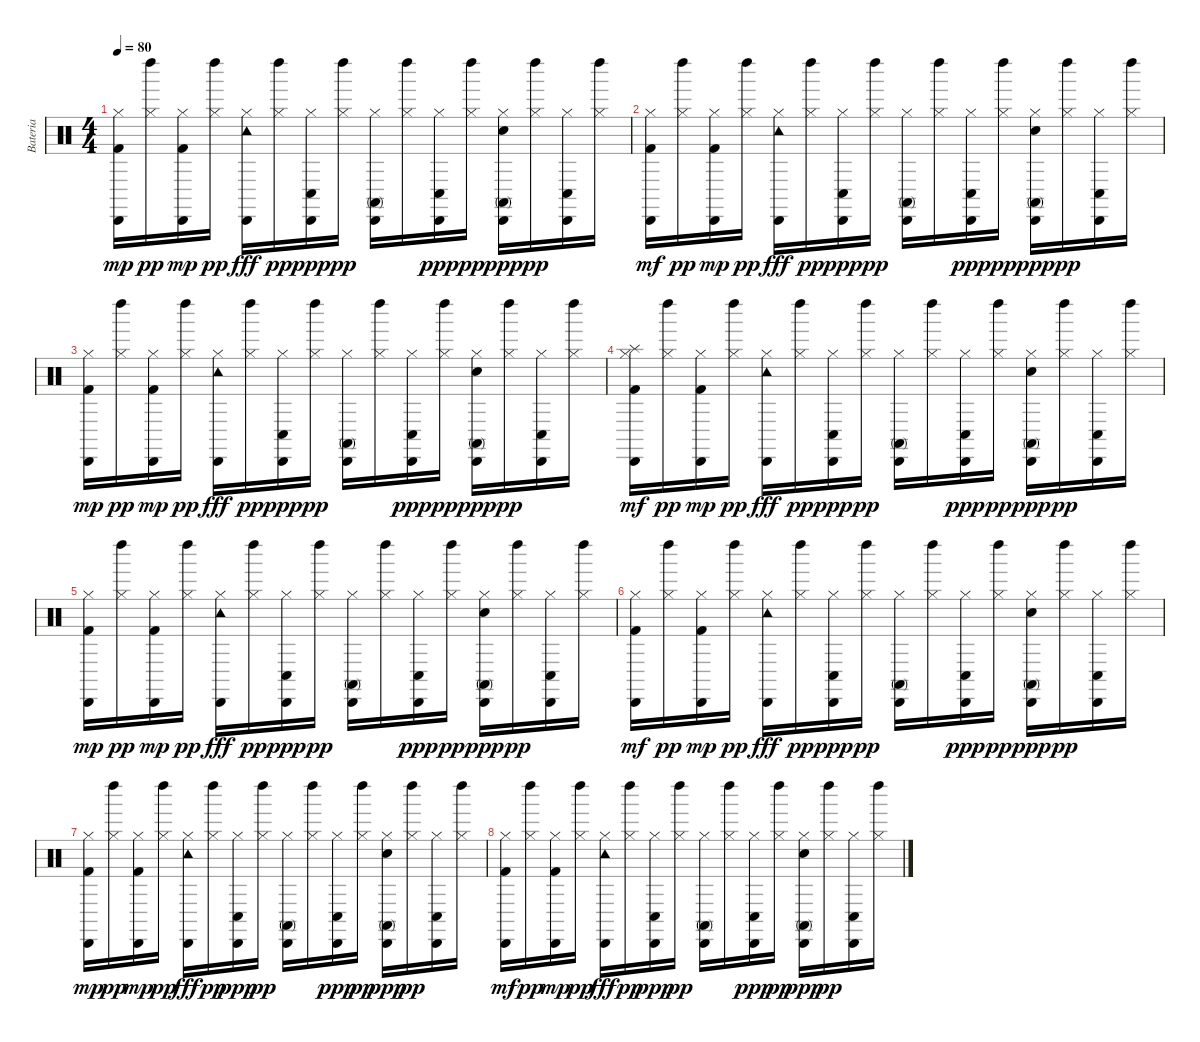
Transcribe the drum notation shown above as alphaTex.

\track ("Bateria" "Bateria") {instrument percussion}
\staff {score}
\articulation defaults
\ts (4 4)
\tempo 80
\clef neutral
\ks c
("Hi-Hat (closed)" "Cabasa (hit)" "Kick (hit) 2").16{dy mp} ("Hi-Hat (closed)" "Left Maraca (hit)").16{dy pp} ("Hi-Hat (closed)" "Cabasa (hit)" "Kick (hit) 2").16{dy mp} ("Hi-Hat (closed)" "Left Maraca (hit)").16{dy pp} ("Hi-Hat (closed)" "Cabasa (hit)" "Tambourine (hit)").16{dy fff} ("Hi-Hat (closed)" "Left Maraca (hit)").16{dy pp} ("Hi-Hat (closed)" "Conga low (hit)" "Cabasa (hit)").16{dy ppp} ("Hi-Hat (closed)" "Left Maraca (hit)").16{dy pp} ("Hi-Hat (closed)" "Conga high (mute)" "Cabasa (hit)").16 ("Hi-Hat (closed)" "Left Maraca (hit)").16 ("Hi-Hat (closed)" "Conga low (hit)" "Cabasa (hit)").16{dy ppp} ("Hi-Hat (closed)" "Left Maraca (hit)").16{dy pp} ("Electric Snare (hit)" "Hi-Hat (closed)" "Conga high (mute)" "Cabasa (hit)").16{dy ppp} ("Hi-Hat (closed)" "Left Maraca (hit)").16{dy pp} ("Hi-Hat (closed)" "Conga low (hit)" "Cabasa (hit)").16 ("Hi-Hat (closed)" "Left Maraca (hit)").16 |
("Hi-Hat (closed)" "Cabasa (hit)" "Kick (hit) 2").16{dy mf} ("Hi-Hat (closed)" "Left Maraca (hit)").16{dy pp} ("Hi-Hat (closed)" "Cabasa (hit)" "Kick (hit) 2").16{dy mp} ("Hi-Hat (closed)" "Left Maraca (hit)").16{dy pp} ("Hi-Hat (closed)" "Cabasa (hit)" "Tambourine (hit)").16{dy fff} ("Hi-Hat (closed)" "Left Maraca (hit)").16{dy pp} ("Hi-Hat (closed)" "Conga low (hit)" "Cabasa (hit)").16{dy ppp} ("Hi-Hat (closed)" "Left Maraca (hit)").16{dy pp} ("Hi-Hat (closed)" "Conga high (mute)" "Cabasa (hit)").16 ("Hi-Hat (closed)" "Left Maraca (hit)").16 ("Hi-Hat (closed)" "Conga low (hit)" "Cabasa (hit)").16{dy ppp} ("Hi-Hat (closed)" "Left Maraca (hit)").16{dy pp} ("Electric Snare (hit)" "Hi-Hat (closed)" "Conga high (mute)" "Cabasa (hit)").16{dy ppp} ("Hi-Hat (closed)" "Left Maraca (hit)").16{dy pp} ("Hi-Hat (closed)" "Conga low (hit)" "Cabasa (hit)").16 ("Hi-Hat (closed)" "Left Maraca (hit)").16 |
("Hi-Hat (closed)" "Cabasa (hit)" "Kick (hit) 2").16{dy mp} ("Hi-Hat (closed)" "Left Maraca (hit)").16{dy pp} ("Hi-Hat (closed)" "Cabasa (hit)" "Kick (hit) 2").16{dy mp} ("Hi-Hat (closed)" "Left Maraca (hit)").16{dy pp} ("Hi-Hat (closed)" "Cabasa (hit)" "Tambourine (hit)").16{dy fff} ("Hi-Hat (closed)" "Left Maraca (hit)").16{dy pp} ("Hi-Hat (closed)" "Conga low (hit)" "Cabasa (hit)").16{dy ppp} ("Hi-Hat (closed)" "Left Maraca (hit)").16{dy pp} ("Hi-Hat (closed)" "Conga high (mute)" "Cabasa (hit)").16 ("Hi-Hat (closed)" "Left Maraca (hit)").16 ("Hi-Hat (closed)" "Conga low (hit)" "Cabasa (hit)").16{dy ppp} ("Hi-Hat (closed)" "Left Maraca (hit)").16{dy pp} ("Electric Snare (hit)" "Hi-Hat (closed)" "Conga high (mute)" "Cabasa (hit)").16{dy ppp} ("Hi-Hat (closed)" "Left Maraca (hit)").16{dy pp} ("Hi-Hat (closed)" "Conga low (hit)" "Cabasa (hit)").16 ("Hi-Hat (closed)" "Left Maraca (hit)").16 |
("Hi-Hat (closed)" "Splash (hit)" "Cabasa (hit)" "Kick (hit) 2").16{dy mf} ("Hi-Hat (closed)" "Left Maraca (hit)").16{dy pp} ("Hi-Hat (closed)" "Cabasa (hit)" "Kick (hit) 2").16{dy mp} ("Hi-Hat (closed)" "Left Maraca (hit)").16{dy pp} ("Hi-Hat (closed)" "Cabasa (hit)" "Tambourine (hit)").16{dy fff} ("Hi-Hat (closed)" "Left Maraca (hit)").16{dy pp} ("Hi-Hat (closed)" "Conga low (hit)" "Cabasa (hit)").16{dy ppp} ("Hi-Hat (closed)" "Left Maraca (hit)").16{dy pp} ("Hi-Hat (closed)" "Conga high (mute)" "Cabasa (hit)").16 ("Hi-Hat (closed)" "Left Maraca (hit)").16 ("Hi-Hat (closed)" "Conga low (hit)" "Cabasa (hit)").16{dy ppp} ("Hi-Hat (closed)" "Left Maraca (hit)").16{dy pp} ("Electric Snare (hit)" "Hi-Hat (closed)" "Conga high (mute)" "Cabasa (hit)").16{dy ppp} ("Hi-Hat (closed)" "Left Maraca (hit)").16{dy pp} ("Hi-Hat (closed)" "Conga low (hit)" "Cabasa (hit)").16 ("Hi-Hat (closed)" "Left Maraca (hit)").16 |
("Hi-Hat (closed)" "Cabasa (hit)" "Kick (hit) 2").16{dy mp} ("Hi-Hat (closed)" "Left Maraca (hit)").16{dy pp} ("Hi-Hat (closed)" "Cabasa (hit)" "Kick (hit) 2").16{dy mp} ("Hi-Hat (closed)" "Left Maraca (hit)").16{dy pp} ("Hi-Hat (closed)" "Cabasa (hit)" "Tambourine (hit)").16{dy fff} ("Hi-Hat (closed)" "Left Maraca (hit)").16{dy pp} ("Hi-Hat (closed)" "Conga low (hit)" "Cabasa (hit)").16{dy ppp} ("Hi-Hat (closed)" "Left Maraca (hit)").16{dy pp} ("Hi-Hat (closed)" "Conga high (mute)" "Cabasa (hit)").16 ("Hi-Hat (closed)" "Left Maraca (hit)").16 ("Hi-Hat (closed)" "Conga low (hit)" "Cabasa (hit)").16{dy ppp} ("Hi-Hat (closed)" "Left Maraca (hit)").16{dy pp} ("Electric Snare (hit)" "Hi-Hat (closed)" "Conga high (mute)" "Cabasa (hit)").16{dy ppp} ("Hi-Hat (closed)" "Left Maraca (hit)").16{dy pp} ("Hi-Hat (closed)" "Conga low (hit)" "Cabasa (hit)").16 ("Hi-Hat (closed)" "Left Maraca (hit)").16 |
("Hi-Hat (closed)" "Cabasa (hit)" "Kick (hit) 2").16{dy mf} ("Hi-Hat (closed)" "Left Maraca (hit)").16{dy pp} ("Hi-Hat (closed)" "Cabasa (hit)" "Kick (hit) 2").16{dy mp} ("Hi-Hat (closed)" "Left Maraca (hit)").16{dy pp} ("Hi-Hat (closed)" "Cabasa (hit)" "Tambourine (hit)").16{dy fff} ("Hi-Hat (closed)" "Left Maraca (hit)").16{dy pp} ("Hi-Hat (closed)" "Conga low (hit)" "Cabasa (hit)").16{dy ppp} ("Hi-Hat (closed)" "Left Maraca (hit)").16{dy pp} ("Hi-Hat (closed)" "Conga high (mute)" "Cabasa (hit)").16 ("Hi-Hat (closed)" "Left Maraca (hit)").16 ("Hi-Hat (closed)" "Conga low (hit)" "Cabasa (hit)").16{dy ppp} ("Hi-Hat (closed)" "Left Maraca (hit)").16{dy pp} ("Electric Snare (hit)" "Hi-Hat (closed)" "Conga high (mute)" "Cabasa (hit)").16{dy ppp} ("Hi-Hat (closed)" "Left Maraca (hit)").16{dy pp} ("Hi-Hat (closed)" "Conga low (hit)" "Cabasa (hit)").16 ("Hi-Hat (closed)" "Left Maraca (hit)").16 |
("Hi-Hat (closed)" "Cabasa (hit)" "Kick (hit) 2").16{dy mp} ("Hi-Hat (closed)" "Left Maraca (hit)").16{dy pp} ("Hi-Hat (closed)" "Cabasa (hit)" "Kick (hit) 2").16{dy mp} ("Hi-Hat (closed)" "Left Maraca (hit)").16{dy pp} ("Hi-Hat (closed)" "Cabasa (hit)" "Tambourine (hit)").16{dy fff} ("Hi-Hat (closed)" "Left Maraca (hit)").16{dy pp} ("Hi-Hat (closed)" "Conga low (hit)" "Cabasa (hit)").16{dy ppp} ("Hi-Hat (closed)" "Left Maraca (hit)").16{dy pp} ("Hi-Hat (closed)" "Conga high (mute)" "Cabasa (hit)").16 ("Hi-Hat (closed)" "Left Maraca (hit)").16 ("Hi-Hat (closed)" "Conga low (hit)" "Cabasa (hit)").16{dy ppp} ("Hi-Hat (closed)" "Left Maraca (hit)").16{dy pp} ("Electric Snare (hit)" "Hi-Hat (closed)" "Conga high (mute)" "Cabasa (hit)").16{dy ppp} ("Hi-Hat (closed)" "Left Maraca (hit)").16{dy pp} ("Hi-Hat (closed)" "Conga low (hit)" "Cabasa (hit)").16 ("Hi-Hat (closed)" "Left Maraca (hit)").16 |
("Hi-Hat (closed)" "Cabasa (hit)" "Kick (hit) 2").16{dy mf} ("Hi-Hat (closed)" "Left Maraca (hit)").16{dy pp} ("Hi-Hat (closed)" "Cabasa (hit)" "Kick (hit) 2").16{dy mp} ("Hi-Hat (closed)" "Left Maraca (hit)").16{dy pp} ("Hi-Hat (closed)" "Cabasa (hit)" "Tambourine (hit)").16{dy fff} ("Hi-Hat (closed)" "Left Maraca (hit)").16{dy pp} ("Hi-Hat (closed)" "Conga low (hit)" "Cabasa (hit)").16{dy ppp} ("Hi-Hat (closed)" "Left Maraca (hit)").16{dy pp} ("Hi-Hat (closed)" "Conga high (mute)" "Cabasa (hit)").16 ("Hi-Hat (closed)" "Left Maraca (hit)").16 ("Hi-Hat (closed)" "Conga low (hit)" "Cabasa (hit)").16{dy ppp} ("Hi-Hat (closed)" "Left Maraca (hit)").16{dy pp} ("Electric Snare (hit)" "Hi-Hat (closed)" "Conga high (mute)" "Cabasa (hit)").16{dy ppp} ("Hi-Hat (closed)" "Left Maraca (hit)").16{dy pp} ("Hi-Hat (closed)" "Conga low (hit)" "Cabasa (hit)").16 ("Hi-Hat (closed)" "Left Maraca (hit)").16
